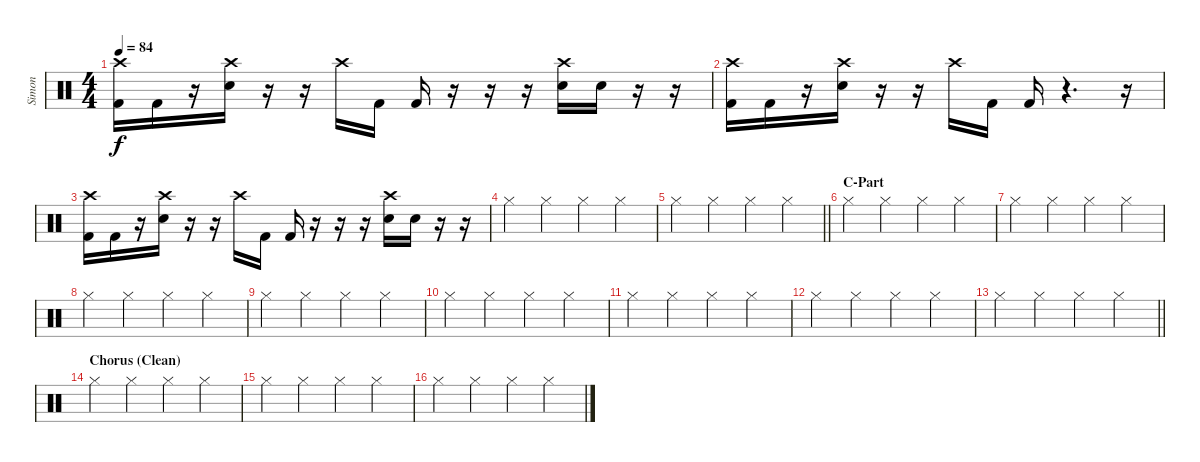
\track ("Simon" "Simon") {instrument percussion}
\staff {score}
\articulation defaults
\ts (4 4)
\tempo 84
\clef neutral
\ks c
("Kick (hit) 2" "Crash high (hit)").16{dy f} "Kick (hit) 2".16 r.16 ("Snare (hit) 2" "Crash high (hit)").16 r.16 r.16 "Crash high (hit)".16 "Kick (hit) 2".16 "Kick (hit) 2".16 r.16 r.16 r.16 ("Snare (hit) 2" "Crash high (hit)").16 "Snare (hit) 2".16 r.16 r.16 |
("Kick (hit) 2" "Crash high (hit)").16 "Kick (hit) 2".16 r.16 ("Snare (hit) 2" "Crash high (hit)").16 r.16 r.16 "Crash high (hit)".16 "Kick (hit) 2".16 "Kick (hit) 2".16 r.4{d} r.16 |
("Kick (hit) 2" "Crash high (hit)").16 "Kick (hit) 2".16 r.16 ("Snare (hit) 2" "Crash high (hit)").16 r.16 r.16 "Crash high (hit)".16 "Kick (hit) 2".16 "Kick (hit) 2".16 r.16 r.16 r.16 ("Snare (hit) 2" "Crash high (hit)").16 "Snare (hit) 2".16 r.16 r.16 |
"Hi-Hat (closed)".4 "Hi-Hat (closed)".4 "Hi-Hat (closed)".4 "Hi-Hat (closed)".4 |
\barLineRight lightlight "Hi-Hat (closed)".4 "Hi-Hat (closed)".4 "Hi-Hat (closed)".4 "Hi-Hat (closed)".4
|
\section ("" "C-Part")
"Hi-Hat (closed)".4 "Hi-Hat (closed)".4 "Hi-Hat (closed)".4 "Hi-Hat (closed)".4 |
"Hi-Hat (closed)".4 "Hi-Hat (closed)".4 "Hi-Hat (closed)".4 "Hi-Hat (closed)".4 |
"Hi-Hat (closed)".4 "Hi-Hat (closed)".4 "Hi-Hat (closed)".4 "Hi-Hat (closed)".4 |
"Hi-Hat (closed)".4 "Hi-Hat (closed)".4 "Hi-Hat (closed)".4 "Hi-Hat (closed)".4 |
"Hi-Hat (closed)".4 "Hi-Hat (closed)".4 "Hi-Hat (closed)".4 "Hi-Hat (closed)".4 |
"Hi-Hat (closed)".4 "Hi-Hat (closed)".4 "Hi-Hat (closed)".4 "Hi-Hat (closed)".4 |
"Hi-Hat (closed)".4 "Hi-Hat (closed)".4 "Hi-Hat (closed)".4 "Hi-Hat (closed)".4 |
\barLineRight lightlight "Hi-Hat (closed)".4 "Hi-Hat (closed)".4 "Hi-Hat (closed)".4 "Hi-Hat (closed)".4
|
\section ("" "Chorus (Clean)")
"Hi-Hat (closed)".4 "Hi-Hat (closed)".4 "Hi-Hat (closed)".4 "Hi-Hat (closed)".4 |
"Hi-Hat (closed)".4 "Hi-Hat (closed)".4 "Hi-Hat (closed)".4 "Hi-Hat (closed)".4 |
"Hi-Hat (closed)".4 "Hi-Hat (closed)".4 "Hi-Hat (closed)".4 "Hi-Hat (closed)".4
